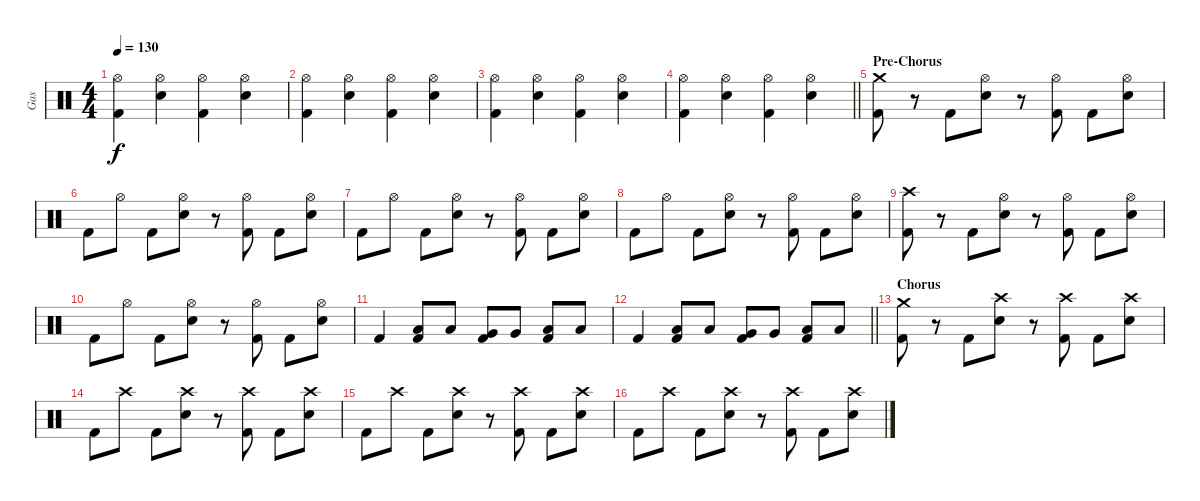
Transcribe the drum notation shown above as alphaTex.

\track ("Gas" "Gas") {instrument percussion}
\staff {score}
\articulation defaults
\ts (4 4)
\tempo 130
\clef neutral
\ks c
("Kick (hit) 2" "Hi-Hat (open)").4{dy f} ("Electric Snare (hit)" "Hi-Hat (open)").4 ("Kick (hit) 2" "Hi-Hat (open)").4 ("Electric Snare (hit)" "Hi-Hat (open)").4 |
("Kick (hit) 2" "Hi-Hat (open)").4 ("Electric Snare (hit)" "Hi-Hat (open)").4 ("Kick (hit) 2" "Hi-Hat (open)").4 ("Electric Snare (hit)" "Hi-Hat (open)").4 |
("Kick (hit) 2" "Hi-Hat (open)").4 ("Electric Snare (hit)" "Hi-Hat (open)").4 ("Kick (hit) 2" "Hi-Hat (open)").4 ("Electric Snare (hit)" "Hi-Hat (open)").4 |
\barLineRight lightlight
("Kick (hit) 2" "Hi-Hat (open)").4 ("Electric Snare (hit)" "Hi-Hat (open)").4 ("Kick (hit) 2" "Hi-Hat (open)").4 ("Electric Snare (hit)" "Hi-Hat (open)").4 |
\section ("" "Pre-Chorus")
("Crash medium (hit)" "Kick (hit) 2").8 r.8 "Kick (hit) 2".8 ("Hi-Hat (open)" "Electric Snare (hit)").8 r.8 ("Hi-Hat (open)" "Kick (hit) 2").8 "Kick (hit) 2".8 ("Hi-Hat (open)" "Electric Snare (hit)").8 |
"Kick (hit) 2".8 "Hi-Hat (open)".8 "Kick (hit) 2".8 ("Electric Snare (hit)" "Hi-Hat (open)").8 r.8 ("Kick (hit) 2" "Hi-Hat (open)").8 "Kick (hit) 2".8 ("Electric Snare (hit)" "Hi-Hat (open)").8 |
"Kick (hit) 2".8 "Hi-Hat (open)".8 "Kick (hit) 2".8 ("Hi-Hat (open)" "Electric Snare (hit)").8 r.8 ("Hi-Hat (open)" "Kick (hit) 2").8 "Kick (hit) 2".8 ("Hi-Hat (open)" "Electric Snare (hit)").8 |
"Kick (hit) 2".8 "Hi-Hat (open)".8 "Kick (hit) 2".8 ("Electric Snare (hit)" "Hi-Hat (open)").8 r.8 ("Kick (hit) 2" "Hi-Hat (open)").8 "Kick (hit) 2".8 ("Electric Snare (hit)" "Hi-Hat (open)").8 |
("Crash high (hit)" "Kick (hit) 2").8 r.8 "Kick (hit) 2".8 ("Hi-Hat (open)" "Electric Snare (hit)").8 r.8 ("Hi-Hat (open)" "Kick (hit) 2").8 "Kick (hit) 2".8 ("Hi-Hat (open)" "Electric Snare (hit)").8 |
"Kick (hit) 2".8 "Hi-Hat (open)".8 "Kick (hit) 2".8 ("Electric Snare (hit)" "Hi-Hat (open)").8 r.8 ("Kick (hit) 2" "Hi-Hat (open)").8 "Kick (hit) 2".8 ("Electric Snare (hit)" "Hi-Hat (open)").8 |
"Kick (hit) 2".4 ("Low Tom (hit)" "Kick (hit) 2").8 "Low Tom (hit)".8 ("Very Low Tom (hit)" "Kick (hit) 2").8 "Very Low Tom (hit)".8 ("Low Floor Tom (hit)" "Kick (hit) 2").8 "Low Floor Tom (hit)".8 |
\barLineRight lightlight "Kick (hit) 2".4
("Low Tom (hit)" "Kick (hit) 2").8 "Low Tom (hit)".8 ("Very Low Tom (hit)" "Kick (hit) 2").8 "Very Low Tom (hit)".8 ("Low Floor Tom (hit)" "Kick (hit) 2").8 "Low Floor Tom (hit)".8 |
\section ("" "Chorus")
("Crash medium (hit)" "Kick (hit) 2").8 r.8 "Kick (hit) 2".8 ("Crash high (hit)" "Electric Snare (hit)").8 r.8 ("Crash high (hit)" "Kick (hit) 2").8 "Kick (hit) 2".8 ("Crash high (hit)" "Electric Snare (hit)").8 |
"Kick (hit) 2".8 "Crash high (hit)".8 "Kick (hit) 2".8 ("Electric Snare (hit)" "Crash high (hit)").8 r.8 ("Kick (hit) 2" "Crash high (hit)").8 "Kick (hit) 2".8 ("Electric Snare (hit)" "Crash high (hit)").8 |
"Kick (hit) 2".8 "Crash high (hit)".8 "Kick (hit) 2".8 ("Crash high (hit)" "Electric Snare (hit)").8 r.8 ("Crash high (hit)" "Kick (hit) 2").8 "Kick (hit) 2".8 ("Crash high (hit)" "Electric Snare (hit)").8 |
"Kick (hit) 2".8 "Crash high (hit)".8 "Kick (hit) 2".8 ("Electric Snare (hit)" "Crash high (hit)").8 r.8 ("Kick (hit) 2" "Crash high (hit)").8 "Kick (hit) 2".8 ("Electric Snare (hit)" "Crash high (hit)").8
